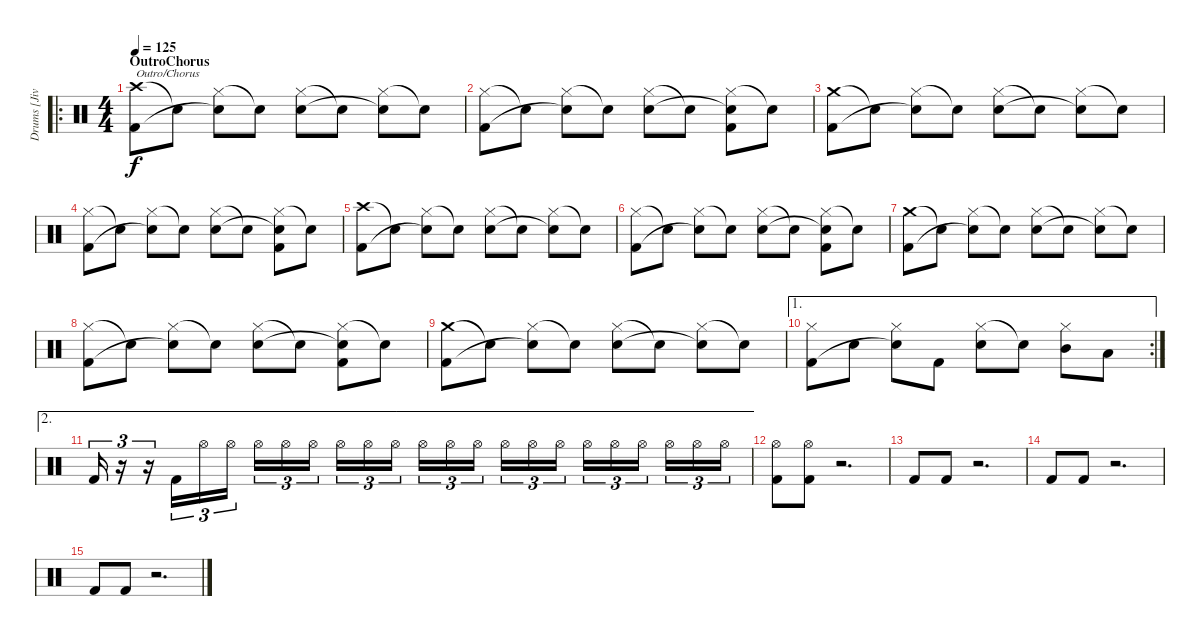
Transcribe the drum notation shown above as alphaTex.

\track ("Drums [Jivarp]" "Drums [Jiv") {instrument percussion}
\staff {score}
\articulation defaults
\ro
\ts (4 4)
\section ("" "OutroChorus")
\tempo 125
\clef neutral
\ks c
("Crash high (hit)" "Kick (hit) 2").8{txt "Outro/Chorus" dy f} "Snare (hit)"{t}.8 ("Hi-Hat (closed)" "Snare (hit)"{t}).8 "Snare (hit)"{t}.8 ("Hi-Hat (closed)" "Electric Snare (hit)").8 "Snare (hit)"{t}.8 ("Hi-Hat (closed)" "Snare (hit)"{t}).8 "Snare (hit)"{t}.8 |
("Hi-Hat (closed)" "Kick (hit) 2").8 "Snare (hit)"{t}.8 ("Hi-Hat (closed)" "Snare (hit)"{t}).8 "Snare (hit)"{t}.8 ("Hi-Hat (closed)" "Electric Snare (hit)").8 "Snare (hit)"{t}.8 ("Hi-Hat (closed)" "Snare (hit)"{t} "Kick (hit) 2").8 "Snare (hit)"{t}.8 |
("Crash medium (hit)" "Kick (hit) 2").8 "Snare (hit)"{t}.8 ("Hi-Hat (closed)" "Snare (hit)"{t}).8 "Snare (hit)"{t}.8 ("Hi-Hat (closed)" "Electric Snare (hit)").8 "Snare (hit)"{t}.8 ("Hi-Hat (closed)" "Snare (hit)"{t}).8 "Snare (hit)"{t}.8 |
("Hi-Hat (closed)" "Kick (hit) 2").8 "Snare (hit)"{t}.8 ("Hi-Hat (closed)" "Snare (hit)"{t}).8 "Snare (hit)"{t}.8 ("Hi-Hat (closed)" "Electric Snare (hit)").8 "Snare (hit)"{t}.8 ("Hi-Hat (closed)" "Snare (hit)"{t} "Kick (hit) 2").8 "Snare (hit)"{t}.8 |
("Crash high (hit)" "Kick (hit) 2").8 "Snare (hit)"{t}.8 ("Hi-Hat (closed)" "Snare (hit)"{t}).8 "Snare (hit)"{t}.8 ("Hi-Hat (closed)" "Electric Snare (hit)").8 "Snare (hit)"{t}.8 ("Hi-Hat (closed)" "Snare (hit)"{t}).8 "Snare (hit)"{t}.8 |
("Hi-Hat (closed)" "Kick (hit) 2").8 "Snare (hit)"{t}.8 ("Hi-Hat (closed)" "Snare (hit)"{t}).8 "Snare (hit)"{t}.8 ("Hi-Hat (closed)" "Electric Snare (hit)").8 "Snare (hit)"{t}.8 ("Hi-Hat (closed)" "Snare (hit)"{t} "Kick (hit) 2").8 "Snare (hit)"{t}.8 |
("Crash medium (hit)" "Kick (hit) 2").8 "Snare (hit)"{t}.8 ("Hi-Hat (closed)" "Snare (hit)"{t}).8 "Snare (hit)"{t}.8 ("Hi-Hat (closed)" "Electric Snare (hit)").8 "Snare (hit)"{t}.8 ("Hi-Hat (closed)" "Snare (hit)"{t}).8 "Snare (hit)"{t}.8 |
("Hi-Hat (closed)" "Kick (hit) 2").8 "Snare (hit)"{t}.8 ("Hi-Hat (closed)" "Snare (hit)"{t}).8 "Snare (hit)"{t}.8 ("Hi-Hat (closed)" "Electric Snare (hit)").8 "Snare (hit)"{t}.8 ("Hi-Hat (closed)" "Snare (hit)"{t} "Kick (hit) 2").8 "Snare (hit)"{t}.8 |
("Crash medium (hit)" "Kick (hit) 2").8 "Snare (hit)"{t}.8 ("Hi-Hat (closed)" "Snare (hit)"{t}).8 "Snare (hit)"{t}.8 ("Hi-Hat (closed)" "Electric Snare (hit)").8 "Snare (hit)"{t}.8 ("Hi-Hat (closed)" "Snare (hit)"{t}).8 "Snare (hit)"{t}.8 |
\ae 1
\rc 2
("Hi-Hat (closed)" "Kick (hit) 2").8 "Electric Snare (hit)".8 ("Hi-Hat (closed)" "Snare (hit)"{t}).8 "Kick (hit) 2".8 ("Hi-Hat (closed)" "Electric Snare (hit)").8 "Snare (hit)"{t}.8 ("Hi-Hat (closed)" "Mid Tom (hit)").8 "Low Tom (hit)".8 |
\ae 2 "Kick (hit) 2".16{tu (3 2)}
r.16{tu (3 2)} r.16{tu (3 2)} "Kick (hit) 2".16{tu (3 2)} "Hi-Hat (open)"{x}.16{tu (3 2) volume 0} "Hi-Hat (open)"{x}.16{tu (3 2)} "Hi-Hat (open)".16{tu (3 2) volume 14} "Hi-Hat (open)".16{tu (3 2)} "Hi-Hat (open)".16{tu (3 2)} "Hi-Hat (open)".16{tu (3 2)} "Hi-Hat (open)".16{tu (3 2)} "Hi-Hat (open)".16{tu (3 2)} "Hi-Hat (open)".16{tu (3 2)} "Hi-Hat (open)".16{tu (3 2)} "Hi-Hat (open)".16{tu (3 2)} "Hi-Hat (open)".16{tu (3 2)} "Hi-Hat (open)".16{tu (3 2)} "Hi-Hat (open)".16{tu (3 2)} "Hi-Hat (open)".16{tu (3 2)} "Hi-Hat (open)".16{tu (3 2)} "Hi-Hat (open)".16{tu (3 2)} "Hi-Hat (open)".16{tu (3 2)} "Hi-Hat (open)".16{tu (3 2)} "Hi-Hat (open)".16{tu (3 2)} |
("Hi-Hat (open)" "Kick (hit) 2").8 ("Hi-Hat (open)" "Kick (hit) 2").8 r.2{d} |
"Kick (hit) 2".8 "Kick (hit) 2".8 r.2{d} |
"Kick (hit) 2".8 "Kick (hit) 2".8 r.2{d} |
"Kick (hit) 2".8 "Kick (hit) 2".8 r.2{d}
